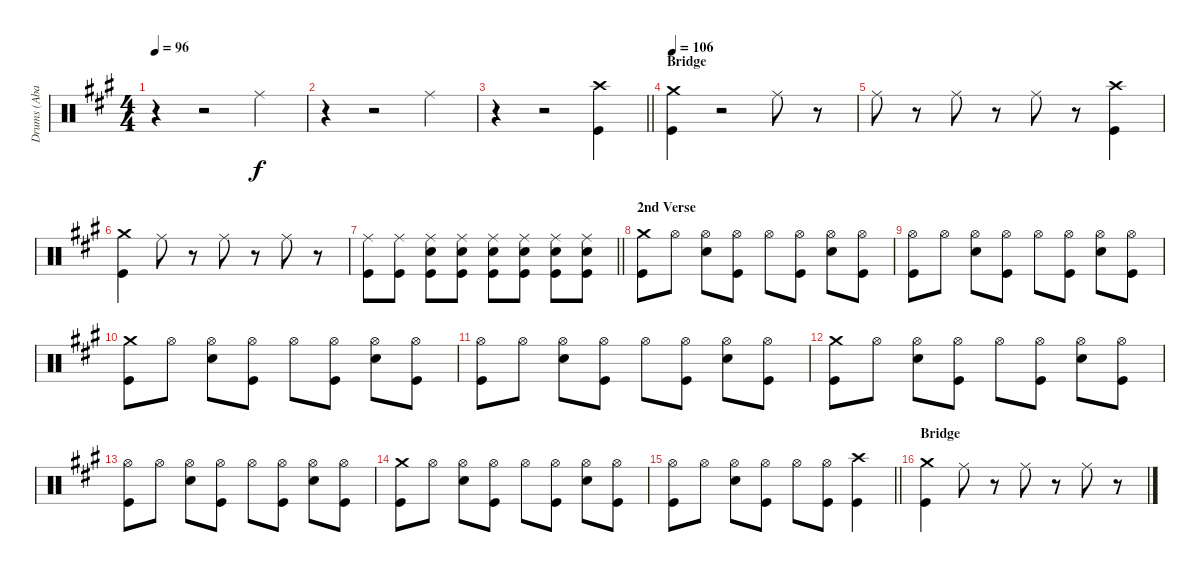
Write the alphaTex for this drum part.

\track ("Drums (Abaddon)" "Drums (Aba") {instrument percussion}
\staff {score}
\articulation defaults
\ts (4 4)
\tempo 96
\clef neutral
\ks f#minor
r.4{dy f} r.2 "Ride (middle)".4 |
r.4 r.2 "Ride (middle)".4 |
\barLineRight lightlight
r.4 r.2 ("Crash high (hit)" "Kick (hit)").4 |
\section ("" "Bridge")
\tempo 106
("Crash medium (hit)" "Kick (hit)").4 r.2 "Ride (middle)".8 r.8 |
"Ride (middle)".8 r.8 "Ride (middle)".8 r.8 "Ride (middle)".8 r.8 ("Crash high (hit)" "Kick (hit)").4 |
("Crash medium (hit)" "Kick (hit)").4 "Ride (middle)".8 r.8 "Ride (middle)".8 r.8 "Ride (middle)".8 r.8 |
\barLineRight lightlight
("Ride (middle)" "Kick (hit)").8 ("Ride (middle)" "Kick (hit)").8 ("Ride (middle)" "Electric Snare (hit)" "Kick (hit)").8 ("Ride (middle)" "Electric Snare (hit)" "Kick (hit)").8 ("Ride (middle)" "Electric Snare (hit)" "Kick (hit)").8 ("Ride (middle)" "Electric Snare (hit)" "Kick (hit)").8 ("Ride (middle)" "Electric Snare (hit)" "Kick (hit)").8 ("Ride (middle)" "Electric Snare (hit)" "Kick (hit)").8 |
\section ("" "2nd Verse")
("Crash medium (hit)" "Kick (hit)").8 "Hi-Hat (open)".8 ("Hi-Hat (open)" "Electric Snare (hit)").8 ("Hi-Hat (open)" "Kick (hit)").8 "Hi-Hat (open)".8 ("Hi-Hat (open)" "Kick (hit)").8 ("Hi-Hat (open)" "Electric Snare (hit)").8 ("Hi-Hat (open)" "Kick (hit)").8 |
("Hi-Hat (open)" "Kick (hit)").8 "Hi-Hat (open)".8 ("Hi-Hat (open)" "Electric Snare (hit)").8 ("Hi-Hat (open)" "Kick (hit)").8 "Hi-Hat (open)".8 ("Hi-Hat (open)" "Kick (hit)").8 ("Hi-Hat (open)" "Electric Snare (hit)").8 ("Hi-Hat (open)" "Kick (hit)").8 |
("Crash medium (hit)" "Kick (hit)").8 "Hi-Hat (open)".8 ("Hi-Hat (open)" "Electric Snare (hit)").8 ("Hi-Hat (open)" "Kick (hit)").8 "Hi-Hat (open)".8 ("Hi-Hat (open)" "Kick (hit)").8 ("Hi-Hat (open)" "Electric Snare (hit)").8 ("Hi-Hat (open)" "Kick (hit)").8 |
("Hi-Hat (open)" "Kick (hit)").8 "Hi-Hat (open)".8 ("Hi-Hat (open)" "Electric Snare (hit)").8 ("Hi-Hat (open)" "Kick (hit)").8 "Hi-Hat (open)".8 ("Hi-Hat (open)" "Kick (hit)").8 ("Hi-Hat (open)" "Electric Snare (hit)").8 ("Hi-Hat (open)" "Kick (hit)").8 |
("Crash medium (hit)" "Kick (hit)").8 "Hi-Hat (open)".8 ("Hi-Hat (open)" "Electric Snare (hit)").8 ("Hi-Hat (open)" "Kick (hit)").8 "Hi-Hat (open)".8 ("Hi-Hat (open)" "Kick (hit)").8 ("Hi-Hat (open)" "Electric Snare (hit)").8 ("Hi-Hat (open)" "Kick (hit)").8 |
("Hi-Hat (open)" "Kick (hit)").8 "Hi-Hat (open)".8 ("Hi-Hat (open)" "Electric Snare (hit)").8 ("Hi-Hat (open)" "Kick (hit)").8 "Hi-Hat (open)".8 ("Hi-Hat (open)" "Kick (hit)").8 ("Hi-Hat (open)" "Electric Snare (hit)").8 ("Hi-Hat (open)" "Kick (hit)").8 |
("Crash medium (hit)" "Kick (hit)").8 "Hi-Hat (open)".8 ("Hi-Hat (open)" "Electric Snare (hit)").8 ("Hi-Hat (open)" "Kick (hit)").8 "Hi-Hat (open)".8 ("Hi-Hat (open)" "Kick (hit)").8 ("Hi-Hat (open)" "Electric Snare (hit)").8 ("Hi-Hat (open)" "Kick (hit)").8 |
\barLineRight lightlight
("Hi-Hat (open)" "Kick (hit)").8 "Hi-Hat (open)".8 ("Hi-Hat (open)" "Electric Snare (hit)").8 ("Hi-Hat (open)" "Kick (hit)").8 "Hi-Hat (open)".8 ("Hi-Hat (open)" "Kick (hit)").8 ("Crash high (hit)" "Kick (hit)").4 |
\section ("" "Bridge")
("Crash medium (hit)" "Kick (hit)").4 "Ride (middle)".8 r.8 "Ride (middle)".8 r.8 "Ride (middle)".8 r.8
